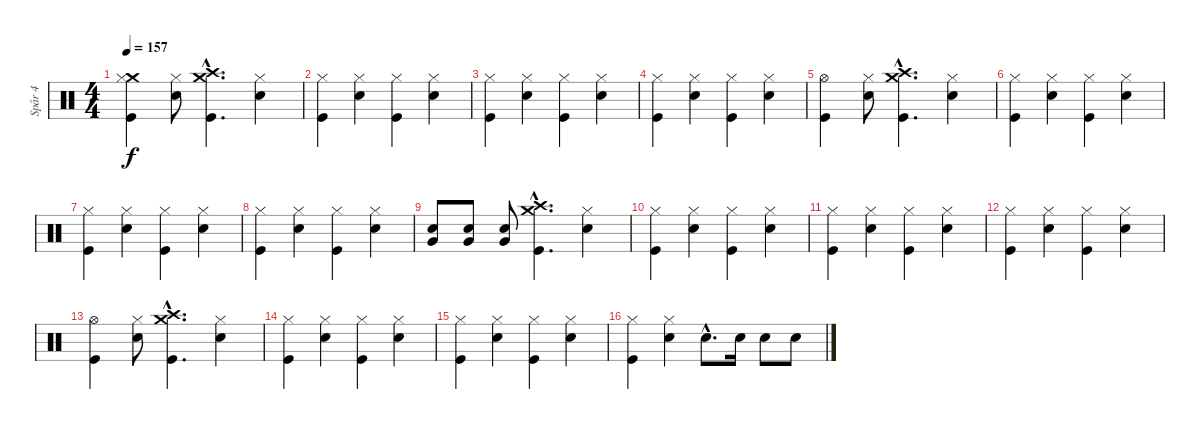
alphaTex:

\track ("Spår 4" "Spår 4") {instrument percussion}
\staff {score}
\articulation defaults
\ts (4 4)
\tempo 157
\clef neutral
\ks c
("Crash medium (hit)" "Hi-Hat (closed)" "Kick (hit)").4{dy f} ("Hi-Hat (closed)" "Snare (hit) 2").8 ("Crash medium (hit)"{hac} "Crash high (hit)"{hac} "Kick (hit)"{hac}).4{d} ("Hi-Hat (closed)" "Snare (hit) 2").4 |
("Hi-Hat (closed)" "Kick (hit)").4 ("Hi-Hat (closed)" "Snare (hit) 2").4 ("Hi-Hat (closed)" "Kick (hit)").4 ("Hi-Hat (closed)" "Snare (hit) 2").4 |
("Hi-Hat (closed)" "Kick (hit)").4 ("Hi-Hat (closed)" "Snare (hit) 2").4 ("Hi-Hat (closed)" "Kick (hit)").4 ("Hi-Hat (closed)" "Snare (hit) 2").4 |
("Hi-Hat (closed)" "Kick (hit)").4 ("Hi-Hat (closed)" "Snare (hit) 2").4 ("Hi-Hat (closed)" "Kick (hit)").4 ("Hi-Hat (closed)" "Snare (hit) 2").4 |
("Hi-Hat (open)" "Kick (hit)").4 ("Hi-Hat (closed)" "Snare (hit) 2").8 ("Crash medium (hit)"{hac} "Crash high (hit)"{hac} "Kick (hit)"{hac}).4{d} ("Hi-Hat (closed)" "Snare (hit) 2").4 |
("Hi-Hat (closed)" "Kick (hit)").4 ("Hi-Hat (closed)" "Snare (hit) 2").4 ("Hi-Hat (closed)" "Kick (hit)").4 ("Hi-Hat (closed)" "Snare (hit) 2").4 |
("Hi-Hat (closed)" "Kick (hit)").4 ("Hi-Hat (closed)" "Snare (hit) 2").4 ("Hi-Hat (closed)" "Kick (hit)").4 ("Hi-Hat (closed)" "Snare (hit) 2").4 |
("Hi-Hat (closed)" "Kick (hit)").4 ("Hi-Hat (closed)" "Snare (hit) 2").4 ("Hi-Hat (closed)" "Kick (hit)").4 ("Hi-Hat (closed)" "Snare (hit) 2").4 |
("Very Low Tom (hit)" "Snare (hit) 2").8 ("Very Low Tom (hit)" "Snare (hit) 2").8 ("Very Low Tom (hit)" "Snare (hit) 2").8 ("Crash medium (hit)"{hac} "Crash high (hit)"{hac} "Kick (hit)"{hac}).4{d} ("Hi-Hat (closed)" "Snare (hit) 2").4 |
("Hi-Hat (closed)" "Kick (hit)").4 ("Hi-Hat (closed)" "Snare (hit) 2").4 ("Hi-Hat (closed)" "Kick (hit)").4 ("Hi-Hat (closed)" "Snare (hit) 2").4 |
("Hi-Hat (closed)" "Kick (hit)").4 ("Hi-Hat (closed)" "Snare (hit) 2").4 ("Hi-Hat (closed)" "Kick (hit)").4 ("Hi-Hat (closed)" "Snare (hit) 2").4 |
("Hi-Hat (closed)" "Kick (hit)").4 ("Hi-Hat (closed)" "Snare (hit) 2").4 ("Hi-Hat (closed)" "Kick (hit)").4 ("Hi-Hat (closed)" "Snare (hit) 2").4 |
("Hi-Hat (open)" "Kick (hit)").4 ("Hi-Hat (closed)" "Snare (hit) 2").8 ("Crash medium (hit)"{hac} "Crash high (hit)"{hac} "Kick (hit)"{hac}).4{d} ("Hi-Hat (closed)" "Snare (hit) 2").4 |
("Hi-Hat (closed)" "Kick (hit)").4 ("Hi-Hat (closed)" "Snare (hit) 2").4 ("Hi-Hat (closed)" "Kick (hit)").4 ("Hi-Hat (closed)" "Snare (hit) 2").4 |
("Hi-Hat (closed)" "Kick (hit)").4 ("Hi-Hat (closed)" "Snare (hit) 2").4 ("Hi-Hat (closed)" "Kick (hit)").4 ("Hi-Hat (closed)" "Snare (hit) 2").4 |
("Hi-Hat (closed)" "Kick (hit)").4 ("Hi-Hat (closed)" "Snare (hit) 2").4 "Snare (hit) 2"{hac}.8{d} "Snare (hit) 2".16 "Snare (hit) 2".8 "Snare (hit) 2".8
